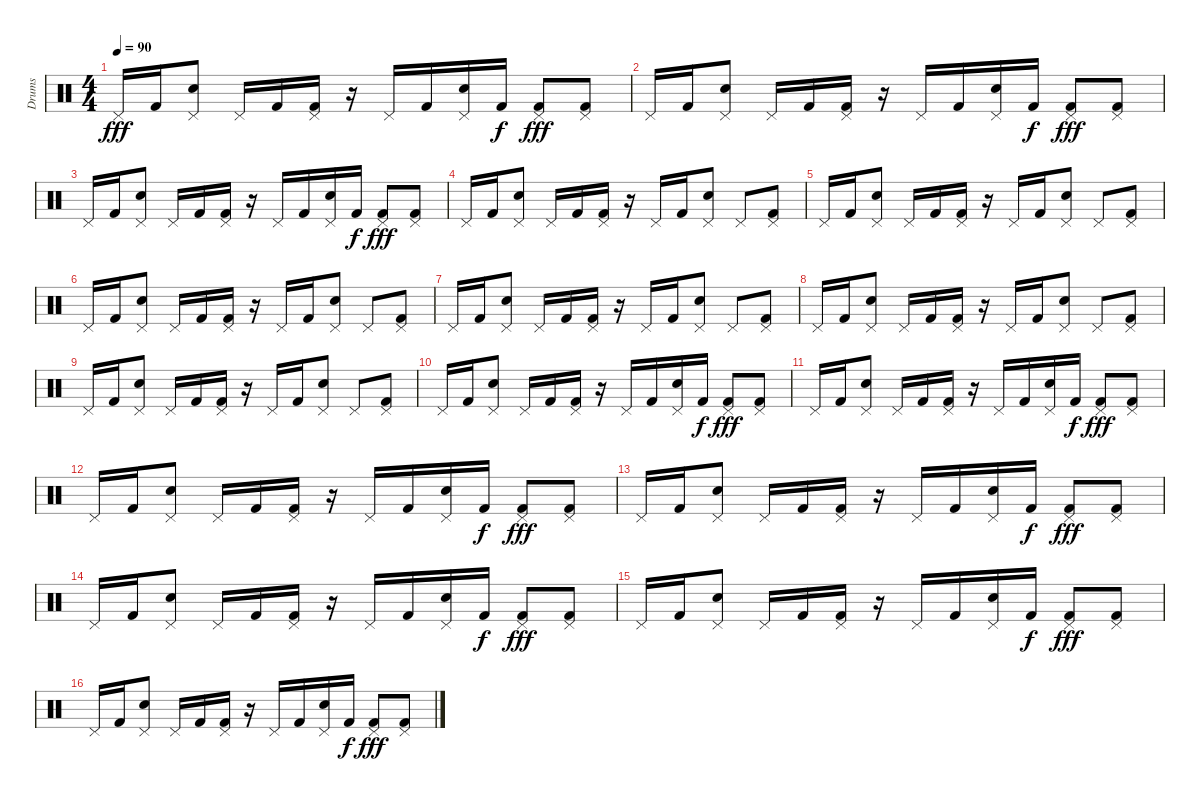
\track ("Drums" "Drums") {instrument percussion}
\staff {score}
\articulation defaults
\ts (4 4)
\tempo 90
\clef neutral
\ks c "Pedal Hi-Hat (hit)".16{dy fff} "Kick (hit) 2".16
("Electric Snare (hit)" "Pedal Hi-Hat (hit)").8 "Pedal Hi-Hat (hit)".16 "Kick (hit) 2".16 ("Kick (hit) 2" "Pedal Hi-Hat (hit)").16 r.16 "Pedal Hi-Hat (hit)".16 "Kick (hit) 2".16 ("Pedal Hi-Hat (hit)" "Electric Snare (hit)").16 "Kick (hit) 2".16{dy f} ("Kick (hit) 2" "Pedal Hi-Hat (hit)").8{dy fff} ("Kick (hit) 2" "Pedal Hi-Hat (hit)").8 |
"Pedal Hi-Hat (hit)".16 "Kick (hit) 2".16 ("Electric Snare (hit)" "Pedal Hi-Hat (hit)").8 "Pedal Hi-Hat (hit)".16 "Kick (hit) 2".16 ("Kick (hit) 2" "Pedal Hi-Hat (hit)").16 r.16 "Pedal Hi-Hat (hit)".16 "Kick (hit) 2".16 ("Pedal Hi-Hat (hit)" "Electric Snare (hit)").16 "Kick (hit) 2".16{dy f} ("Kick (hit) 2" "Pedal Hi-Hat (hit)").8{dy fff} ("Kick (hit) 2" "Pedal Hi-Hat (hit)").8 |
"Pedal Hi-Hat (hit)".16 "Kick (hit) 2".16 ("Electric Snare (hit)" "Pedal Hi-Hat (hit)").8 "Pedal Hi-Hat (hit)".16 "Kick (hit) 2".16 ("Kick (hit) 2" "Pedal Hi-Hat (hit)").16 r.16 "Pedal Hi-Hat (hit)".16 "Kick (hit) 2".16 ("Pedal Hi-Hat (hit)" "Electric Snare (hit)").16 "Kick (hit) 2".16{dy f} ("Kick (hit) 2" "Pedal Hi-Hat (hit)").8{dy fff} ("Kick (hit) 2" "Pedal Hi-Hat (hit)").8 |
"Pedal Hi-Hat (hit)".16 "Kick (hit) 2".16 ("Electric Snare (hit)" "Pedal Hi-Hat (hit)").8 "Pedal Hi-Hat (hit)".16 "Kick (hit) 2".16 ("Kick (hit) 2" "Pedal Hi-Hat (hit)").16 r.16 "Pedal Hi-Hat (hit)".16 "Kick (hit) 2".16 ("Pedal Hi-Hat (hit)" "Electric Snare (hit)").8 "Pedal Hi-Hat (hit)".8 ("Kick (hit) 2" "Pedal Hi-Hat (hit)").8 |
"Pedal Hi-Hat (hit)".16 "Kick (hit) 2".16 ("Electric Snare (hit)" "Pedal Hi-Hat (hit)").8 "Pedal Hi-Hat (hit)".16 "Kick (hit) 2".16 ("Kick (hit) 2" "Pedal Hi-Hat (hit)").16 r.16 "Pedal Hi-Hat (hit)".16 "Kick (hit) 2".16 ("Pedal Hi-Hat (hit)" "Electric Snare (hit)").8 "Pedal Hi-Hat (hit)".8 ("Kick (hit) 2" "Pedal Hi-Hat (hit)").8 |
"Pedal Hi-Hat (hit)".16 "Kick (hit) 2".16 ("Electric Snare (hit)" "Pedal Hi-Hat (hit)").8 "Pedal Hi-Hat (hit)".16 "Kick (hit) 2".16 ("Kick (hit) 2" "Pedal Hi-Hat (hit)").16 r.16 "Pedal Hi-Hat (hit)".16 "Kick (hit) 2".16 ("Pedal Hi-Hat (hit)" "Electric Snare (hit)").8 "Pedal Hi-Hat (hit)".8 ("Kick (hit) 2" "Pedal Hi-Hat (hit)").8 |
"Pedal Hi-Hat (hit)".16 "Kick (hit) 2".16 ("Electric Snare (hit)" "Pedal Hi-Hat (hit)").8 "Pedal Hi-Hat (hit)".16 "Kick (hit) 2".16 ("Kick (hit) 2" "Pedal Hi-Hat (hit)").16 r.16 "Pedal Hi-Hat (hit)".16 "Kick (hit) 2".16 ("Pedal Hi-Hat (hit)" "Electric Snare (hit)").8 "Pedal Hi-Hat (hit)".8 ("Kick (hit) 2" "Pedal Hi-Hat (hit)").8 |
"Pedal Hi-Hat (hit)".16 "Kick (hit) 2".16 ("Electric Snare (hit)" "Pedal Hi-Hat (hit)").8 "Pedal Hi-Hat (hit)".16 "Kick (hit) 2".16 ("Kick (hit) 2" "Pedal Hi-Hat (hit)").16 r.16 "Pedal Hi-Hat (hit)".16 "Kick (hit) 2".16 ("Pedal Hi-Hat (hit)" "Electric Snare (hit)").8 "Pedal Hi-Hat (hit)".8 ("Kick (hit) 2" "Pedal Hi-Hat (hit)").8 |
"Pedal Hi-Hat (hit)".16 "Kick (hit) 2".16 ("Electric Snare (hit)" "Pedal Hi-Hat (hit)").8 "Pedal Hi-Hat (hit)".16 "Kick (hit) 2".16 ("Kick (hit) 2" "Pedal Hi-Hat (hit)").16 r.16 "Pedal Hi-Hat (hit)".16 "Kick (hit) 2".16 ("Pedal Hi-Hat (hit)" "Electric Snare (hit)").8 "Pedal Hi-Hat (hit)".8 ("Kick (hit) 2" "Pedal Hi-Hat (hit)").8 |
"Pedal Hi-Hat (hit)".16 "Kick (hit) 2".16 ("Electric Snare (hit)" "Pedal Hi-Hat (hit)").8 "Pedal Hi-Hat (hit)".16 "Kick (hit) 2".16 ("Kick (hit) 2" "Pedal Hi-Hat (hit)").16 r.16 "Pedal Hi-Hat (hit)".16 "Kick (hit) 2".16 ("Pedal Hi-Hat (hit)" "Electric Snare (hit)").16 "Kick (hit) 2".16{dy f} ("Kick (hit) 2" "Pedal Hi-Hat (hit)").8{dy fff} ("Kick (hit) 2" "Pedal Hi-Hat (hit)").8 |
"Pedal Hi-Hat (hit)".16 "Kick (hit) 2".16 ("Electric Snare (hit)" "Pedal Hi-Hat (hit)").8 "Pedal Hi-Hat (hit)".16 "Kick (hit) 2".16 ("Kick (hit) 2" "Pedal Hi-Hat (hit)").16 r.16 "Pedal Hi-Hat (hit)".16 "Kick (hit) 2".16 ("Pedal Hi-Hat (hit)" "Electric Snare (hit)").16 "Kick (hit) 2".16{dy f} ("Kick (hit) 2" "Pedal Hi-Hat (hit)").8{dy fff} ("Kick (hit) 2" "Pedal Hi-Hat (hit)").8 |
"Pedal Hi-Hat (hit)".16 "Kick (hit) 2".16 ("Electric Snare (hit)" "Pedal Hi-Hat (hit)").8 "Pedal Hi-Hat (hit)".16 "Kick (hit) 2".16 ("Kick (hit) 2" "Pedal Hi-Hat (hit)").16 r.16 "Pedal Hi-Hat (hit)".16 "Kick (hit) 2".16 ("Pedal Hi-Hat (hit)" "Electric Snare (hit)").16 "Kick (hit) 2".16{dy f} ("Kick (hit) 2" "Pedal Hi-Hat (hit)").8{dy fff} ("Kick (hit) 2" "Pedal Hi-Hat (hit)").8 |
"Pedal Hi-Hat (hit)".16 "Kick (hit) 2".16 ("Electric Snare (hit)" "Pedal Hi-Hat (hit)").8 "Pedal Hi-Hat (hit)".16 "Kick (hit) 2".16 ("Kick (hit) 2" "Pedal Hi-Hat (hit)").16 r.16 "Pedal Hi-Hat (hit)".16 "Kick (hit) 2".16 ("Pedal Hi-Hat (hit)" "Electric Snare (hit)").16 "Kick (hit) 2".16{dy f} ("Kick (hit) 2" "Pedal Hi-Hat (hit)").8{dy fff} ("Kick (hit) 2" "Pedal Hi-Hat (hit)").8 |
"Pedal Hi-Hat (hit)".16 "Kick (hit) 2".16 ("Electric Snare (hit)" "Pedal Hi-Hat (hit)").8 "Pedal Hi-Hat (hit)".16 "Kick (hit) 2".16 ("Kick (hit) 2" "Pedal Hi-Hat (hit)").16 r.16 "Pedal Hi-Hat (hit)".16 "Kick (hit) 2".16 ("Pedal Hi-Hat (hit)" "Electric Snare (hit)").16 "Kick (hit) 2".16{dy f} ("Kick (hit) 2" "Pedal Hi-Hat (hit)").8{dy fff} ("Kick (hit) 2" "Pedal Hi-Hat (hit)").8 |
"Pedal Hi-Hat (hit)".16 "Kick (hit) 2".16 ("Electric Snare (hit)" "Pedal Hi-Hat (hit)").8 "Pedal Hi-Hat (hit)".16 "Kick (hit) 2".16 ("Kick (hit) 2" "Pedal Hi-Hat (hit)").16 r.16 "Pedal Hi-Hat (hit)".16 "Kick (hit) 2".16 ("Pedal Hi-Hat (hit)" "Electric Snare (hit)").16 "Kick (hit) 2".16{dy f} ("Kick (hit) 2" "Pedal Hi-Hat (hit)").8{dy fff} ("Kick (hit) 2" "Pedal Hi-Hat (hit)").8 |
"Pedal Hi-Hat (hit)".16 "Kick (hit) 2".16 ("Electric Snare (hit)" "Pedal Hi-Hat (hit)").8 "Pedal Hi-Hat (hit)".16 "Kick (hit) 2".16 ("Kick (hit) 2" "Pedal Hi-Hat (hit)").16 r.16 "Pedal Hi-Hat (hit)".16 "Kick (hit) 2".16 ("Pedal Hi-Hat (hit)" "Electric Snare (hit)").16 "Kick (hit) 2".16{dy f} ("Kick (hit) 2" "Pedal Hi-Hat (hit)").8{dy fff} ("Kick (hit) 2" "Pedal Hi-Hat (hit)").8
